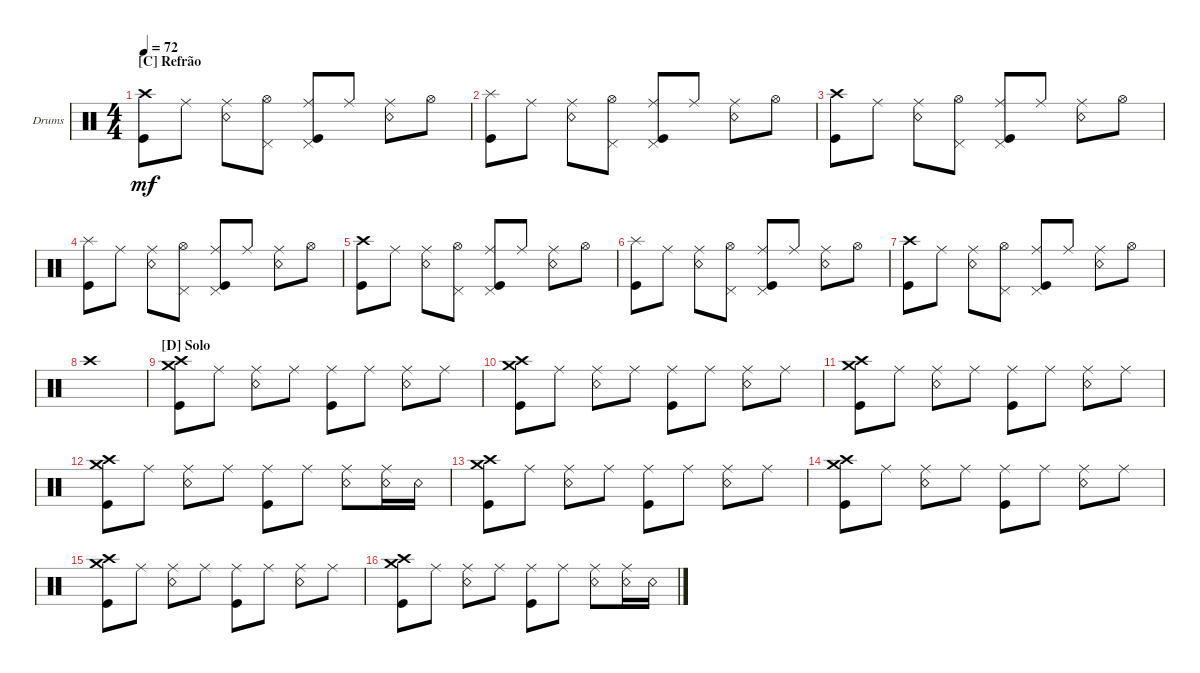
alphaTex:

\defaultSystemsLayout 4
\bracketExtendMode groupsimilarinstruments
\firstSystemTrackNameOrientation horizontal
\otherSystemsTrackNameOrientation horizontal
\track ("Drum" "Drums") {multiBarRest instrument percussion}
\staff {score}
\articulation defaults
\ts (4 4)
\section ("C" "Refrão")
\tempo 72
\clef neutral
\ks c
("Kick (hit)" "Crash high (hit)").8{dy mf} "Ride (middle)".8 ("Snare (rim shot)" "Ride (middle)").8 ("Pedal Hi-Hat (hit)" "Hi-Hat (open)").8 ("Ride (middle)" "Kick (hit)" "Pedal Hi-Hat (hit)").8 "Ride (middle)".8 ("Ride (middle)" "Snare (rim shot)").8 "Hi-Hat (open)".8 |
("Kick (hit)" "Splash (hit)").8 "Ride (middle)".8 ("Snare (rim shot)" "Ride (middle)").8 ("Pedal Hi-Hat (hit)" "Hi-Hat (open)").8 ("Ride (middle)" "Kick (hit)" "Pedal Hi-Hat (hit)").8 "Ride (middle)".8 ("Ride (middle)" "Snare (rim shot)").8 "Hi-Hat (open)".8 |
("Kick (hit)" "Crash high (hit)").8 "Ride (middle)".8 ("Snare (rim shot)" "Ride (middle)").8 ("Pedal Hi-Hat (hit)" "Hi-Hat (open)").8 ("Ride (middle)" "Kick (hit)" "Pedal Hi-Hat (hit)").8 "Ride (middle)".8 ("Ride (middle)" "Snare (rim shot)").8 "Hi-Hat (open)".8 |
("Kick (hit)" "Splash (hit)").8 "Ride (middle)".8 ("Snare (rim shot)" "Ride (middle)").8 ("Pedal Hi-Hat (hit)" "Hi-Hat (open)").8 ("Ride (middle)" "Kick (hit)" "Pedal Hi-Hat (hit)").8 "Ride (middle)".8 ("Ride (middle)" "Snare (rim shot)").8 "Hi-Hat (open)".8 |
("Kick (hit)" "Crash high (hit)").8 "Ride (middle)".8 ("Snare (rim shot)" "Ride (middle)").8 ("Pedal Hi-Hat (hit)" "Hi-Hat (open)").8 ("Ride (middle)" "Kick (hit)" "Pedal Hi-Hat (hit)").8 "Ride (middle)".8 ("Ride (middle)" "Snare (rim shot)").8 "Hi-Hat (open)".8 |
("Kick (hit)" "Splash (hit)").8 "Ride (middle)".8 ("Snare (rim shot)" "Ride (middle)").8 ("Pedal Hi-Hat (hit)" "Hi-Hat (open)").8 ("Ride (middle)" "Kick (hit)" "Pedal Hi-Hat (hit)").8 "Ride (middle)".8 ("Ride (middle)" "Snare (rim shot)").8 "Hi-Hat (open)".8 |
("Kick (hit)" "Crash high (hit)").8 "Ride (middle)".8 ("Snare (rim shot)" "Ride (middle)").8 ("Pedal Hi-Hat (hit)" "Hi-Hat (open)").8 ("Ride (middle)" "Kick (hit)" "Pedal Hi-Hat (hit)").8 "Ride (middle)".8 ("Ride (middle)" "Snare (rim shot)").8 "Hi-Hat (open)".8 |
"Crash high (hit)".1 |
\section ("D" "Solo")
("Kick (hit)" "Crash high (hit)" "Crash medium (hit)").8 "Ride (middle)".8 ("Ride (middle)" "Snare (rim shot)").8 "Ride (middle)".8 ("Ride (middle)" "Kick (hit)").8 "Ride (middle)".8 ("Ride (middle)" "Snare (rim shot)").8 "Ride (middle)".8 |
("Kick (hit)" "Crash high (hit)" "Crash medium (hit)").8 "Ride (middle)".8 ("Ride (middle)" "Snare (rim shot)").8 "Ride (middle)".8 ("Ride (middle)" "Kick (hit)").8 "Ride (middle)".8 ("Ride (middle)" "Snare (rim shot)").8 "Ride (middle)".8 |
("Kick (hit)" "Crash high (hit)" "Crash medium (hit)").8 "Ride (middle)".8 ("Ride (middle)" "Snare (rim shot)").8 "Ride (middle)".8 ("Ride (middle)" "Kick (hit)").8 "Ride (middle)".8 ("Ride (middle)" "Snare (rim shot)").8 "Ride (middle)".8 |
("Kick (hit)" "Crash high (hit)" "Crash medium (hit)").8 "Ride (middle)".8 ("Ride (middle)" "Snare (rim shot)").8 "Ride (middle)".8 ("Ride (middle)" "Kick (hit)").8 "Ride (middle)".8 ("Ride (middle)" "Snare (rim shot)").8 ("Ride (middle)" "Snare (rim shot)").16 "Snare (rim shot)".16 |
("Kick (hit)" "Crash high (hit)" "Crash medium (hit)").8 "Ride (middle)".8 ("Ride (middle)" "Snare (rim shot)").8 "Ride (middle)".8 ("Ride (middle)" "Kick (hit)").8 "Ride (middle)".8 ("Ride (middle)" "Snare (rim shot)").8 "Ride (middle)".8 |
("Kick (hit)" "Crash high (hit)" "Crash medium (hit)").8 "Ride (middle)".8 ("Ride (middle)" "Snare (rim shot)").8 "Ride (middle)".8 ("Ride (middle)" "Kick (hit)").8 "Ride (middle)".8 ("Ride (middle)" "Snare (rim shot)").8 "Ride (middle)".8 |
("Kick (hit)" "Crash high (hit)" "Crash medium (hit)").8 "Ride (middle)".8 ("Ride (middle)" "Snare (rim shot)").8 "Ride (middle)".8 ("Ride (middle)" "Kick (hit)").8 "Ride (middle)".8 ("Ride (middle)" "Snare (rim shot)").8 "Ride (middle)".8 |
("Kick (hit)" "Crash high (hit)" "Crash medium (hit)").8 "Ride (middle)".8 ("Ride (middle)" "Snare (rim shot)").8 "Ride (middle)".8 ("Ride (middle)" "Kick (hit)").8 "Ride (middle)".8 ("Ride (middle)" "Snare (rim shot)").8 ("Ride (middle)" "Snare (rim shot)").16 "Snare (rim shot)".16
